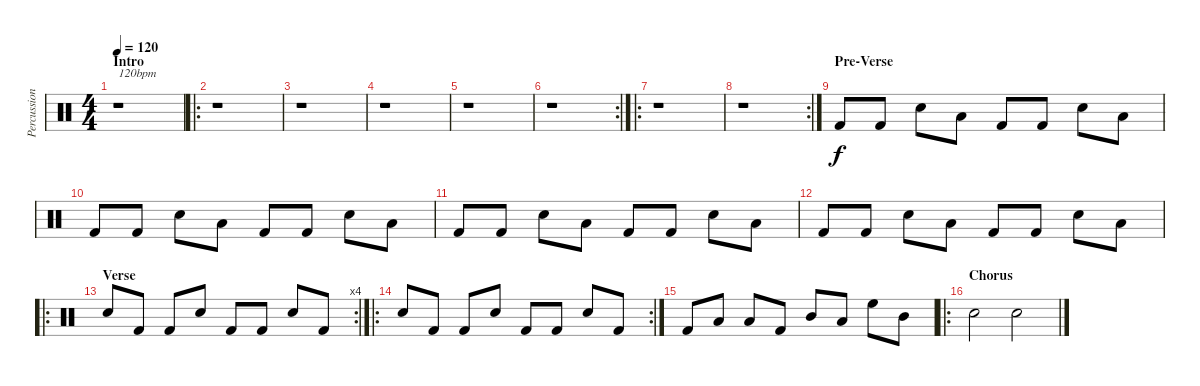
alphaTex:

\track ("Percussion" "Percussion") {instrument percussion}
\staff {score}
\articulation defaults
\ts (4 4)
\section ("" "Intro")
\tempo 120
\clef neutral
\ks c
r.1{txt "120bpm" dy f} |
\ro
r.1 |
r.1 |
r.1 |
r.1 |
\rc 2
r.1 |
\ro
r.1 |
\rc 2
r.1 |
\section ("" "Pre-Verse")
"Kick (hit) 2".8 "Kick (hit) 2".8 "Snare (hit) 2".8 "Low Tom (hit)".8 "Kick (hit) 2".8 "Kick (hit) 2".8 "Snare (hit) 2".8 "Low Tom (hit)".8 |
"Kick (hit) 2".8 "Kick (hit) 2".8 "Snare (hit) 2".8 "Low Tom (hit)".8 "Kick (hit) 2".8 "Kick (hit) 2".8 "Snare (hit) 2".8 "Low Tom (hit)".8 |
"Kick (hit) 2".8 "Kick (hit) 2".8 "Snare (hit) 2".8 "Low Tom (hit)".8 "Kick (hit) 2".8 "Kick (hit) 2".8 "Snare (hit) 2".8 "Low Tom (hit)".8 |
"Kick (hit) 2".8 "Kick (hit) 2".8 "Snare (hit) 2".8 "Low Tom (hit)".8 "Kick (hit) 2".8 "Kick (hit) 2".8 "Snare (hit) 2".8 "Low Tom (hit)".8 |
\ro
\rc 4
\section ("" "Verse")
"Snare (hit) 2".8 "Kick (hit) 2".8 "Kick (hit) 2".8 "Snare (hit) 2".8 "Kick (hit) 2".8 "Kick (hit) 2".8 "Snare (hit) 2".8 "Kick (hit) 2".8 |
\ro
\rc 2 "Snare (hit) 2".8 "Kick (hit) 2".8 "Kick (hit) 2".8 "Snare (hit) 2".8 "Kick (hit) 2".8 "Kick (hit) 2".8 "Snare (hit) 2".8 "Kick (hit) 2".8
|
"Kick (hit) 2".8 "Low Floor Tom (hit)".8 "Low Tom (hit)".8 "Kick (hit) 2".8 "Mid Tom (hit)".8 "Low Tom (hit)".8 "High Floor Tom (hit)".8 "Mid Tom (hit)".8 |
\ro
\section ("" "Chorus")
"Snare (hit) 2".2 "Snare (hit) 2".2
